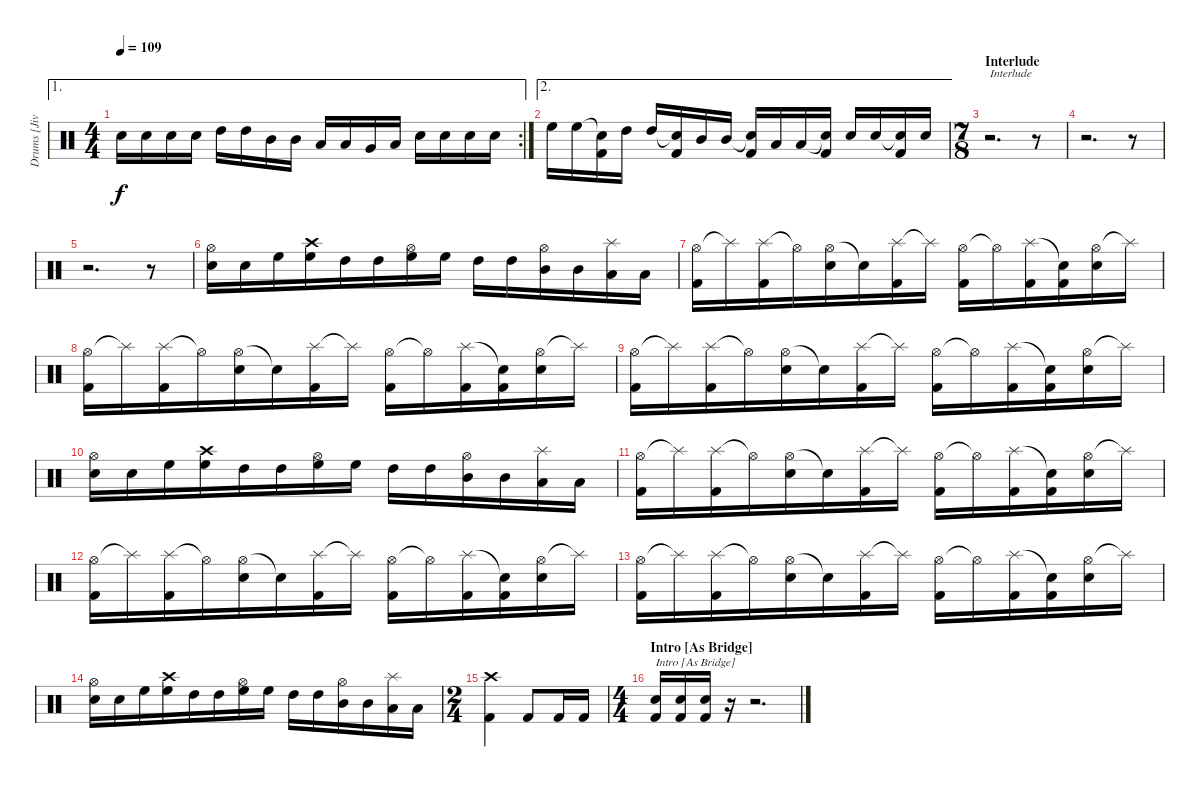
\track ("Drums [Jivarp]" "Drums [Jiv") {instrument percussion}
\staff {score}
\articulation defaults
\ae 1
\rc 2
\ts (4 4)
\tempo 109
\clef neutral
\ks c "Electric Snare (hit)".16{dy f} "Electric Snare (hit)".16 "Electric Snare (hit)".16 "Electric Snare (hit)".16 "High Tom (hit)".16 "High Tom (hit)".16 "Mid Tom (hit)".16 "Mid Tom (hit)".16 "Low Tom (hit)".16 "Low Tom (hit)".16 "Very Low Tom (hit)".16 "Low Tom (hit)".16 "Electric Snare (hit)".16 "Electric Snare (hit)".16 "Electric Snare (hit)".16 "Electric Snare (hit)".16
|
\ae 2 "High Floor Tom (hit)".16 "High Floor Tom (hit)".16
("Snare (hit)"{t} "Kick (hit) 2").16 "High Tom (hit)".16 "High Tom (hit)".16 ("Snare (hit)"{t} "Kick (hit) 2").16 "Mid Tom (hit)".16 "Mid Tom (hit)".16 ("Snare (hit)"{t} "Kick (hit) 2").16 "Low Tom (hit)".16 "Low Tom (hit)".16 ("Snare (hit)"{t} "Kick (hit) 2").16 "Electric Snare (hit)".16 "Electric Snare (hit)".16 ("Snare (hit)"{t} "Kick (hit) 2").16 "Electric Snare (hit)".16 |
\ts (7 8)
\section ("" "Interlude")
r.2{d txt "Interlude"} r.8 |
r.2{d} r.8 |
r.2{d} r.8 |
("Hi-Hat (open)" "Electric Snare (hit)").16 "Electric Snare (hit)".16 "High Floor Tom (hit)".16 ("Crash high (hit)" "High Floor Tom (hit)").16 "High Tom (hit)".16 "High Tom (hit)".16 ("Hi-Hat (open)" "High Floor Tom (hit)").16 "High Floor Tom (hit)".16 "High Tom (hit)".16 "High Tom (hit)".16 ("Hi-Hat (open)" "Mid Tom (hit)").16 "Mid Tom (hit)".16 ("Splash (hit)" "Low Tom (hit)").16 "Low Tom (hit)".16 |
("Hi-Hat (open)" "Kick (hit) 2").16 "Splash (hit)"{t}.16 ("Splash (hit)" "Kick (hit) 2").16 "Hi-Hat (open)"{t}.16 ("Hi-Hat (open)" "Electric Snare (hit)").16 "Snare (hit)"{t}.16 ("Splash (hit)" "Kick (hit) 2").16 "Splash (hit)"{t}.16 ("Hi-Hat (open)" "Kick (hit) 2").16 "Hi-Hat (open)"{t}.16 ("Splash (hit)" "Kick (hit) 2").16 ("Snare (hit)"{t} "Kick (hit) 2").16 ("Hi-Hat (open)" "Electric Snare (hit)").16 "Splash (hit)"{t}.16 |
("Hi-Hat (open)" "Kick (hit) 2").16 "Splash (hit)"{t}.16 ("Splash (hit)" "Kick (hit) 2").16 "Hi-Hat (open)"{t}.16 ("Hi-Hat (open)" "Electric Snare (hit)").16 "Snare (hit)"{t}.16 ("Splash (hit)" "Kick (hit) 2").16 "Splash (hit)"{t}.16 ("Hi-Hat (open)" "Kick (hit) 2").16 "Hi-Hat (open)"{t}.16 ("Splash (hit)" "Kick (hit) 2").16 ("Snare (hit)"{t} "Kick (hit) 2").16 ("Hi-Hat (open)" "Electric Snare (hit)").16 "Splash (hit)"{t}.16 |
("Hi-Hat (open)" "Kick (hit) 2").16 "Splash (hit)"{t}.16 ("Splash (hit)" "Kick (hit) 2").16 "Hi-Hat (open)"{t}.16 ("Hi-Hat (open)" "Electric Snare (hit)").16 "Snare (hit)"{t}.16 ("Splash (hit)" "Kick (hit) 2").16 "Splash (hit)"{t}.16 ("Hi-Hat (open)" "Kick (hit) 2").16 "Hi-Hat (open)"{t}.16 ("Splash (hit)" "Kick (hit) 2").16 ("Snare (hit)"{t} "Kick (hit) 2").16 ("Hi-Hat (open)" "Electric Snare (hit)").16 "Splash (hit)"{t}.16 |
("Hi-Hat (open)" "Electric Snare (hit)").16 "Electric Snare (hit)".16 "High Floor Tom (hit)".16 ("Crash high (hit)" "High Floor Tom (hit)").16 "High Tom (hit)".16 "High Tom (hit)".16 ("Hi-Hat (open)" "High Floor Tom (hit)").16 "High Floor Tom (hit)".16 "High Tom (hit)".16 "High Tom (hit)".16 ("Hi-Hat (open)" "Mid Tom (hit)").16 "Mid Tom (hit)".16 ("Splash (hit)" "Low Tom (hit)").16 "Low Tom (hit)".16 |
("Hi-Hat (open)" "Kick (hit) 2").16 "Splash (hit)"{t}.16 ("Splash (hit)" "Kick (hit) 2").16 "Hi-Hat (open)"{t}.16 ("Hi-Hat (open)" "Electric Snare (hit)").16 "Snare (hit)"{t}.16 ("Splash (hit)" "Kick (hit) 2").16 "Splash (hit)"{t}.16 ("Hi-Hat (open)" "Kick (hit) 2").16 "Hi-Hat (open)"{t}.16 ("Splash (hit)" "Kick (hit) 2").16 ("Snare (hit)"{t} "Kick (hit) 2").16 ("Hi-Hat (open)" "Electric Snare (hit)").16 "Splash (hit)"{t}.16 |
("Hi-Hat (open)" "Kick (hit) 2").16 "Splash (hit)"{t}.16 ("Splash (hit)" "Kick (hit) 2").16 "Hi-Hat (open)"{t}.16 ("Hi-Hat (open)" "Electric Snare (hit)").16 "Snare (hit)"{t}.16 ("Splash (hit)" "Kick (hit) 2").16 "Splash (hit)"{t}.16 ("Hi-Hat (open)" "Kick (hit) 2").16 "Hi-Hat (open)"{t}.16 ("Splash (hit)" "Kick (hit) 2").16 ("Snare (hit)"{t} "Kick (hit) 2").16 ("Hi-Hat (open)" "Electric Snare (hit)").16 "Splash (hit)"{t}.16 |
("Hi-Hat (open)" "Kick (hit) 2").16 "Splash (hit)"{t}.16 ("Splash (hit)" "Kick (hit) 2").16 "Hi-Hat (open)"{t}.16 ("Hi-Hat (open)" "Electric Snare (hit)").16 "Snare (hit)"{t}.16 ("Splash (hit)" "Kick (hit) 2").16 "Splash (hit)"{t}.16 ("Hi-Hat (open)" "Kick (hit) 2").16 "Hi-Hat (open)"{t}.16 ("Splash (hit)" "Kick (hit) 2").16 ("Snare (hit)"{t} "Kick (hit) 2").16 ("Hi-Hat (open)" "Electric Snare (hit)").16 "Splash (hit)"{t}.16 |
("Hi-Hat (open)" "Electric Snare (hit)").16 "Electric Snare (hit)".16 "High Floor Tom (hit)".16 ("Crash high (hit)" "High Floor Tom (hit)").16 "High Tom (hit)".16 "High Tom (hit)".16 ("Hi-Hat (open)" "High Floor Tom (hit)").16 "High Floor Tom (hit)".16 "High Tom (hit)".16 "High Tom (hit)".16 ("Hi-Hat (open)" "Mid Tom (hit)").16 "Mid Tom (hit)".16 ("Splash (hit)" "Low Tom (hit)").16 "Low Tom (hit)".16 |
\ts (2 4)
("Crash high (hit)" "Kick (hit) 2").4 "Kick (hit) 2".8 "Kick (hit) 2".16 "Kick (hit) 2".16 |
\ts (4 4)
\section ("" "Intro [As Bridge]")
("Electric Snare (hit)" "Kick (hit) 2").16{txt "Intro [As Bridge]"} ("Electric Snare (hit)" "Kick (hit) 2").16 ("Electric Snare (hit)" "Kick (hit) 2").16 r.16 r.2{d}
